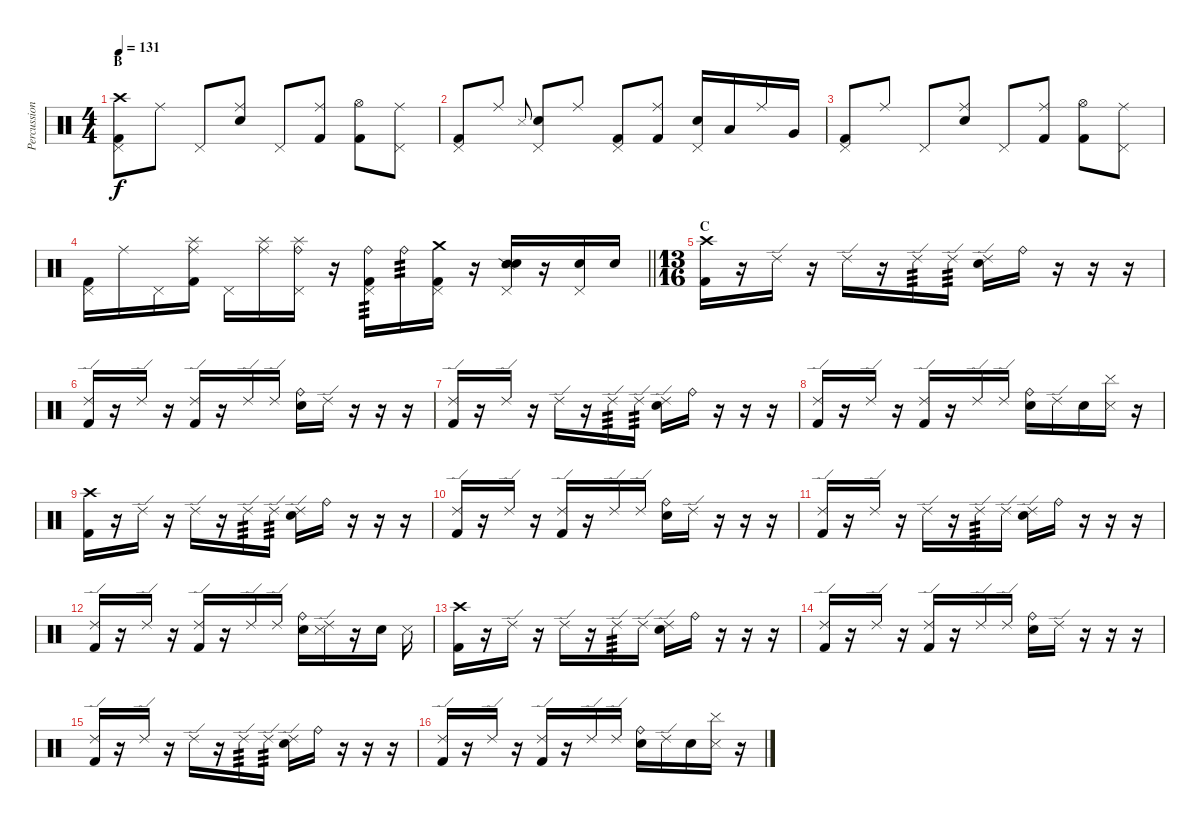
\track ("Percussion" "Percussion") {instrument percussion}
\staff {score}
\articulation defaults
\ts (4 4)
\section ("" "B")
\tempo 131
\clef neutral
\ks c
("Crash high (hit)" "Pedal Hi-Hat (hit)" "Kick (hit) 2").8{dy f} "Ride (middle)".8 "Pedal Hi-Hat (hit)".8 ("Ride (middle)" "Snare (hit) 2").8 "Pedal Hi-Hat (hit)".8 ("Ride (middle)" "Kick (hit) 2").8 ("Hi-Hat (open)" "Kick (hit) 2").8 ("Ride (middle)" "Pedal Hi-Hat (hit)").8 |
("Pedal Hi-Hat (hit)" "Kick (hit) 2").8 "Ride (middle)".8 "Metronome (hit)".8{gr onbeat} ("Pedal Hi-Hat (hit)" "Snare (hit) 2").8 "Ride (middle)".8 ("Pedal Hi-Hat (hit)" "Kick (hit) 2").8 ("Ride (middle)" "Kick (hit) 2").8 ("Pedal Hi-Hat (hit)" "Snare (hit) 2").16 "Low Tom (hit)".16 "Ride (middle)".16 "Very Low Tom (hit)".16 |
("Pedal Hi-Hat (hit)" "Kick (hit) 2").8 "Ride (middle)".8 "Pedal Hi-Hat (hit)".8 ("Ride (middle)" "Snare (hit) 2").8 "Pedal Hi-Hat (hit)".8 ("Ride (middle)" "Kick (hit) 2").8 ("Hi-Hat (open)" "Kick (hit) 2").8 ("Ride (middle)" "Pedal Hi-Hat (hit)").8 |
\barLineRight lightlight
("Pedal Hi-Hat (hit)" "Kick (hit) 2").16 "Ride (middle)".16 "Pedal Hi-Hat (hit)".16 ("Ride (middle)" "Splash (hit)" "Kick (hit) 2").16 "Pedal Hi-Hat (hit)".16 ("Ride (middle)" "Splash (hit)").16 ("Ride (bell)" "Pedal Hi-Hat (hit)" "Splash (hit)").16 r.16 ("Ride (bell)" "Pedal Hi-Hat (hit)" "Kick (hit) 2").16{tp 3} "Ride (bell)".16{tp 3} ("Crash medium (hit)" "Pedal Hi-Hat (hit)" "Kick (hit) 2").16 r.16 ("Snare (side stick) 2" "Pedal Hi-Hat (hit)" "Snare (hit) 2").16 r.16 ("Pedal Hi-Hat (hit)" "Snare (hit) 2").16 "Snare (hit) 2".16 |
\ts (13 16)
\section ("" "C")
("Crash high (hit)" "Kick (hit) 2").16 r.16 "Ride (edge) 2".16 r.16 "Ride (edge) 2".16 r.16 "Ride (edge) 2".16{tp 3} "Ride (edge) 2".16{tp 3} ("Ride (edge) 2" "Snare (hit) 2").16 "Ride (bell)".16 r.16 r.16 r.16 |
("Ride (edge) 2" "Kick (hit) 2").16 r.16 "Ride (edge) 2".16 r.16 ("Ride (edge) 2" "Kick (hit) 2").16 r.16 "Ride (edge) 2".16 "Ride (edge) 2".16 ("Ride (bell)" "Snare (hit) 2").16 "Ride (edge) 2".16 r.16 r.16 r.16 |
("Ride (edge) 2" "Kick (hit) 2").16 r.16 "Ride (edge) 2".16 r.16 "Ride (edge) 2".16 r.16 "Ride (edge) 2".16{tp 3} "Ride (edge) 2".16{tp 3} ("Ride (edge) 2" "Snare (hit) 2").16 "Ride (bell)".16 r.16 r.16 r.16 |
("Ride (edge) 2" "Kick (hit) 2").16 r.16 "Ride (edge) 2".16 r.16 ("Ride (edge) 2" "Kick (hit) 2").16 r.16 "Ride (edge) 2".16 "Ride (edge) 2".16 ("Ride (bell)" "Snare (hit) 2").16 "Ride (edge) 2".16 "Snare (hit) 2".16 ("Cymbal (hit)" "Metronome (hit)").16 r.16 |
("Crash high (hit)" "Kick (hit) 2").16 r.16 "Ride (edge) 2".16 r.16 "Ride (edge) 2".16 r.16 "Ride (edge) 2".16{tp 3} "Ride (edge) 2".16{tp 3} ("Ride (edge) 2" "Snare (hit) 2").16 "Ride (bell)".16 r.16 r.16 r.16 |
("Ride (edge) 2" "Kick (hit) 2").16 r.16 "Ride (edge) 2".16 r.16 ("Ride (edge) 2" "Kick (hit) 2").16 r.16 "Ride (edge) 2".16 "Ride (edge) 2".16 ("Ride (bell)" "Snare (hit) 2").16 "Ride (edge) 2".16 r.16 r.16 r.16 |
("Ride (edge) 2" "Kick (hit) 2").16 r.16 "Ride (edge) 2".16 r.16 "Ride (edge) 2".16 r.16 "Ride (edge) 2".16{tp 3} "Ride (edge) 2".16 ("Ride (edge) 2" "Snare (hit) 2").16 "Ride (bell)".16 r.16 r.16 r.16 |
("Ride (edge) 2" "Kick (hit) 2").16 r.16 "Ride (edge) 2".16 r.16 ("Ride (edge) 2" "Kick (hit) 2").16 r.16 "Ride (edge) 2".16 "Ride (edge) 2".16 ("Ride (bell)" "Snare (hit) 2").16 ("Ride (edge) 2" "Metronome (hit)").16 r.16 "Snare (hit) 2".16 "Metronome (hit)".16 |
("Crash high (hit)" "Kick (hit) 2").16 r.16 "Ride (edge) 2".16 r.16 "Ride (edge) 2".16 r.16 "Ride (edge) 2".16{tp 3} "Ride (edge) 2".16 ("Ride (edge) 2" "Snare (hit) 2").16 "Ride (bell)".16 r.16 r.16 r.16 |
("Ride (edge) 2" "Kick (hit) 2").16 r.16 "Ride (edge) 2".16 r.16 ("Ride (edge) 2" "Kick (hit) 2").16 r.16 "Ride (edge) 2".16 "Ride (edge) 2".16 ("Ride (bell)" "Snare (hit) 2").16 "Ride (edge) 2".16 r.16 r.16 r.16 |
("Ride (edge) 2" "Kick (hit) 2").16 r.16 "Ride (edge) 2".16 r.16 "Ride (edge) 2".16 r.16 "Ride (edge) 2".16{tp 3} "Ride (edge) 2".16{tp 3} ("Ride (edge) 2" "Snare (hit) 2").16 "Ride (bell)".16 r.16 r.16 r.16 |
("Ride (edge) 2" "Kick (hit) 2").16 r.16 "Ride (edge) 2".16 r.16 ("Ride (edge) 2" "Kick (hit) 2").16 r.16 "Ride (edge) 2".16 "Ride (edge) 2".16 ("Ride (bell)" "Snare (hit) 2").16 "Ride (edge) 2".16 "Snare (hit) 2".16 ("Cymbal (hit)" "Metronome (hit)").16 r.16
